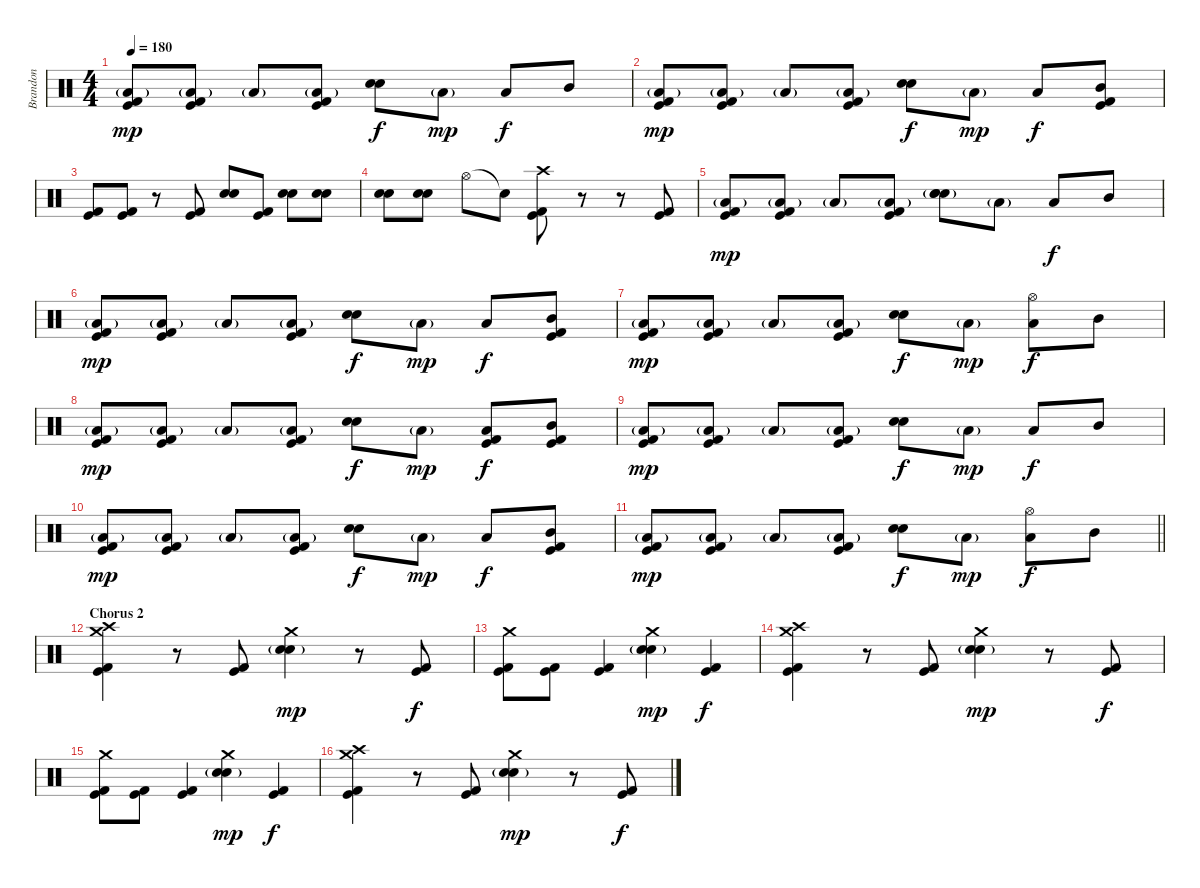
\track ("Brandon" "Brandon") {instrument percussion}
\staff {score}
\articulation defaults
\ts (4 4)
\tempo 180
\clef neutral
\ks c
("Low Floor Tom (hit)"{g} "Kick (hit)" "Kick (hit) 2").8{dy mp} ("Low Floor Tom (hit)"{g} "Kick (hit)" "Kick (hit) 2").8 "Low Floor Tom (hit)"{g}.8 ("Low Floor Tom (hit)"{g} "Kick (hit)" "Kick (hit) 2").8 ("Electric Snare (hit)" "Snare (hit) 2").8{dy f} "Low Floor Tom (hit)"{g}.8{dy mp} "Low Tom (hit)".8{dy f} "Mid Tom (hit)".8 |
("Low Floor Tom (hit)"{g} "Kick (hit)" "Kick (hit) 2").8{dy mp} ("Low Floor Tom (hit)"{g} "Kick (hit)" "Kick (hit) 2").8 "Low Floor Tom (hit)"{g}.8 ("Low Floor Tom (hit)"{g} "Kick (hit)" "Kick (hit) 2").8 ("Electric Snare (hit)" "Snare (hit) 2").8{dy f} "Low Floor Tom (hit)"{g}.8{dy mp} "Low Tom (hit)".8{dy f} ("Mid Tom (hit)" "Kick (hit)" "Kick (hit) 2").8 |
("Kick (hit)" "Kick (hit) 2").8 ("Kick (hit)" "Kick (hit) 2").8 r.8 ("Kick (hit)" "Kick (hit) 2").8 ("Electric Snare (hit)" "Snare (hit) 2").8 ("Kick (hit)" "Kick (hit) 2").8 ("Electric Snare (hit)" "Snare (hit) 2").8 ("Electric Snare (hit)" "Snare (hit) 2").8 |
("Electric Snare (hit)" "Snare (hit) 2").8 ("Electric Snare (hit)" "Snare (hit) 2").8 "Hi-Hat (open)".8 "Snare (hit)"{t}.8 ("Crash high (hit)" "Kick (hit)" "Kick (hit) 2").8 r.8 r.8 ("Kick (hit)" "Kick (hit) 2").8 |
("Low Floor Tom (hit)"{g} "Kick (hit)" "Kick (hit) 2").8{dy mp} ("Low Floor Tom (hit)"{g} "Kick (hit)" "Kick (hit) 2").8 "Low Floor Tom (hit)"{g}.8 ("Low Floor Tom (hit)"{g} "Kick (hit)" "Kick (hit) 2").8 ("Electric Snare (hit)" "Snare (hit) 2" "Electric Snare (hit)"{g}).8 "Low Floor Tom (hit)"{g}.8 "Low Tom (hit)".8{dy f} "Mid Tom (hit)".8 |
("Low Floor Tom (hit)"{g} "Kick (hit)" "Kick (hit) 2").8{dy mp} ("Low Floor Tom (hit)"{g} "Kick (hit)" "Kick (hit) 2").8 "Low Floor Tom (hit)"{g}.8 ("Low Floor Tom (hit)"{g} "Kick (hit)" "Kick (hit) 2").8 ("Electric Snare (hit)" "Snare (hit) 2").8{dy f} "Low Floor Tom (hit)"{g}.8{dy mp} "Low Tom (hit)".8{dy f} ("Mid Tom (hit)" "Kick (hit)" "Kick (hit) 2").8 |
("Low Floor Tom (hit)"{g} "Kick (hit)" "Kick (hit) 2").8{dy mp} ("Low Floor Tom (hit)"{g} "Kick (hit)" "Kick (hit) 2").8 "Low Floor Tom (hit)"{g}.8 ("Low Floor Tom (hit)"{g} "Kick (hit)" "Kick (hit) 2").8 ("Electric Snare (hit)" "Snare (hit) 2").8{dy f} "Low Floor Tom (hit)"{g}.8{dy mp} ("Hi-Hat (open)" "Low Tom (hit)").8{dy f} "Mid Tom (hit)".8 |
("Low Floor Tom (hit)"{g} "Kick (hit)" "Kick (hit) 2").8{dy mp} ("Low Floor Tom (hit)"{g} "Kick (hit)" "Kick (hit) 2").8 "Low Floor Tom (hit)"{g}.8 ("Low Floor Tom (hit)"{g} "Kick (hit)" "Kick (hit) 2").8 ("Electric Snare (hit)" "Snare (hit) 2").8{dy f} "Low Floor Tom (hit)"{g}.8{dy mp} ("Low Tom (hit)" "Kick (hit)" "Kick (hit) 2").8{dy f} ("Mid Tom (hit)" "Kick (hit)" "Kick (hit) 2").8 |
("Low Floor Tom (hit)"{g} "Kick (hit)" "Kick (hit) 2").8{dy mp} ("Low Floor Tom (hit)"{g} "Kick (hit)" "Kick (hit) 2").8 "Low Floor Tom (hit)"{g}.8 ("Low Floor Tom (hit)"{g} "Kick (hit)" "Kick (hit) 2").8 ("Electric Snare (hit)" "Snare (hit) 2").8{dy f} "Low Floor Tom (hit)"{g}.8{dy mp} "Low Tom (hit)".8{dy f} "Mid Tom (hit)".8 |
("Low Floor Tom (hit)"{g} "Kick (hit)" "Kick (hit) 2").8{dy mp} ("Low Floor Tom (hit)"{g} "Kick (hit)" "Kick (hit) 2").8 "Low Floor Tom (hit)"{g}.8 ("Low Floor Tom (hit)"{g} "Kick (hit)" "Kick (hit) 2").8 ("Electric Snare (hit)" "Snare (hit) 2").8{dy f} "Low Floor Tom (hit)"{g}.8{dy mp} "Low Tom (hit)".8{dy f} ("Mid Tom (hit)" "Kick (hit)" "Kick (hit) 2").8 |
\barLineRight lightlight
("Low Floor Tom (hit)"{g} "Kick (hit)" "Kick (hit) 2").8{dy mp} ("Low Floor Tom (hit)"{g} "Kick (hit)" "Kick (hit) 2").8 "Low Floor Tom (hit)"{g}.8 ("Low Floor Tom (hit)"{g} "Kick (hit)" "Kick (hit) 2").8 ("Electric Snare (hit)" "Snare (hit) 2").8{dy f} "Low Floor Tom (hit)"{g}.8{dy mp} ("Hi-Hat (open)" "Low Tom (hit)").8{dy f} "Mid Tom (hit)".8 |
\section ("" "Chorus 2")
("Crash high (hit)" "Crash medium (hit)" "Kick (hit)" "Kick (hit) 2").4 r.8 ("Kick (hit)" "Kick (hit) 2").8 ("Crash medium (hit)" "Snare (hit) 2" "Electric Snare (hit)"{g}).4{dy mp} r.8 ("Kick (hit)" "Kick (hit) 2").8{dy f} |
("Crash medium (hit)" "Kick (hit) 2" "Kick (hit)").8 ("Kick (hit)" "Kick (hit) 2").8 ("Kick (hit)" "Kick (hit) 2").4 ("Crash medium (hit)" "Snare (hit) 2" "Electric Snare (hit)"{g}).4{dy mp} ("Kick (hit)" "Kick (hit) 2").4{dy f} |
("Crash high (hit)" "Crash medium (hit)" "Kick (hit)" "Kick (hit) 2").4 r.8 ("Kick (hit)" "Kick (hit) 2").8 ("Crash medium (hit)" "Snare (hit) 2" "Electric Snare (hit)"{g}).4{dy mp} r.8 ("Kick (hit)" "Kick (hit) 2").8{dy f} |
("Crash medium (hit)" "Kick (hit) 2" "Kick (hit)").8 ("Kick (hit)" "Kick (hit) 2").8 ("Kick (hit)" "Kick (hit) 2").4 ("Crash medium (hit)" "Snare (hit) 2" "Electric Snare (hit)"{g}).4{dy mp} ("Kick (hit)" "Kick (hit) 2").4{dy f} |
("Crash high (hit)" "Crash medium (hit)" "Kick (hit)" "Kick (hit) 2").4 r.8 ("Kick (hit)" "Kick (hit) 2").8 ("Crash medium (hit)" "Snare (hit) 2" "Electric Snare (hit)"{g}).4{dy mp} r.8 ("Kick (hit)" "Kick (hit) 2").8{dy f}
